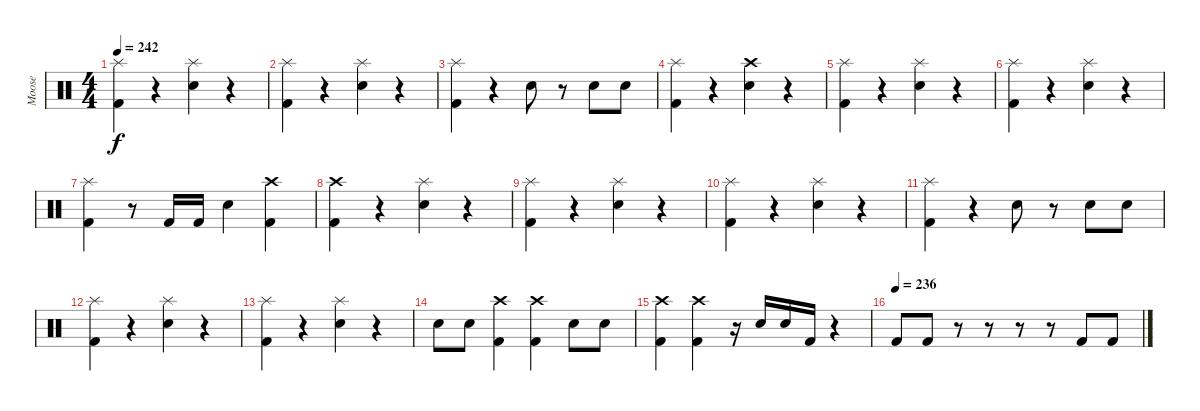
\track ("Moose" "Moose") {instrument percussion}
\staff {score}
\articulation defaults
\ts (4 4)
\tempo 242
\clef neutral
\ks c
("Splash (hit)" "Kick (hit) 2").4{dy f} r.4 ("Splash (hit)" "Electric Snare (hit)").4 r.4 |
("Splash (hit)" "Kick (hit) 2").4 r.4 ("Splash (hit)" "Electric Snare (hit)").4 r.4 |
("Splash (hit)" "Kick (hit) 2").4 r.4 "Electric Snare (hit)".8 r.8 "Electric Snare (hit)".8 "Electric Snare (hit)".8 |
("Splash (hit)" "Kick (hit) 2").4 r.4 ("Crash high (hit)" "Electric Snare (hit)").4 r.4 |
("Splash (hit)" "Kick (hit) 2").4 r.4 ("Splash (hit)" "Electric Snare (hit)").4 r.4 |
("Splash (hit)" "Kick (hit) 2").4 r.4 ("Splash (hit)" "Electric Snare (hit)").4 r.4 |
("Splash (hit)" "Kick (hit) 2").4 r.8 "Kick (hit) 2".16 "Kick (hit) 2".16 "Electric Snare (hit)".4 ("Crash high (hit)" "Kick (hit) 2").4 |
("Crash high (hit)" "Kick (hit) 2").4 r.4 ("Splash (hit)" "Electric Snare (hit)").4 r.4 |
("Splash (hit)" "Kick (hit) 2").4 r.4 ("Splash (hit)" "Electric Snare (hit)").4 r.4 |
("Splash (hit)" "Kick (hit) 2").4 r.4 ("Splash (hit)" "Electric Snare (hit)").4 r.4 |
("Splash (hit)" "Kick (hit) 2").4 r.4 "Electric Snare (hit)".8 r.8 "Electric Snare (hit)".8 "Electric Snare (hit)".8 |
("Splash (hit)" "Kick (hit) 2").4 r.4 ("Splash (hit)" "Electric Snare (hit)").4 r.4 |
("Splash (hit)" "Kick (hit) 2").4 r.4 ("Splash (hit)" "Electric Snare (hit)").4 r.4 |
"Electric Snare (hit)".8 "Electric Snare (hit)".8 ("Crash high (hit)" "Kick (hit) 2").4 ("Crash high (hit)" "Kick (hit) 2").4 "Electric Snare (hit)".8 "Electric Snare (hit)".8 |
("Crash high (hit)" "Kick (hit) 2").4 ("Crash high (hit)" "Kick (hit) 2").4 r.16 "Electric Snare (hit)".16 "Electric Snare (hit)".16 "Kick (hit) 2".16 r.4 |
\tempo (236)
"Kick (hit) 2".8 "Kick (hit) 2".8 r.8 r.8 r.8 r.8 "Kick (hit) 2".8 "Kick (hit) 2".8
